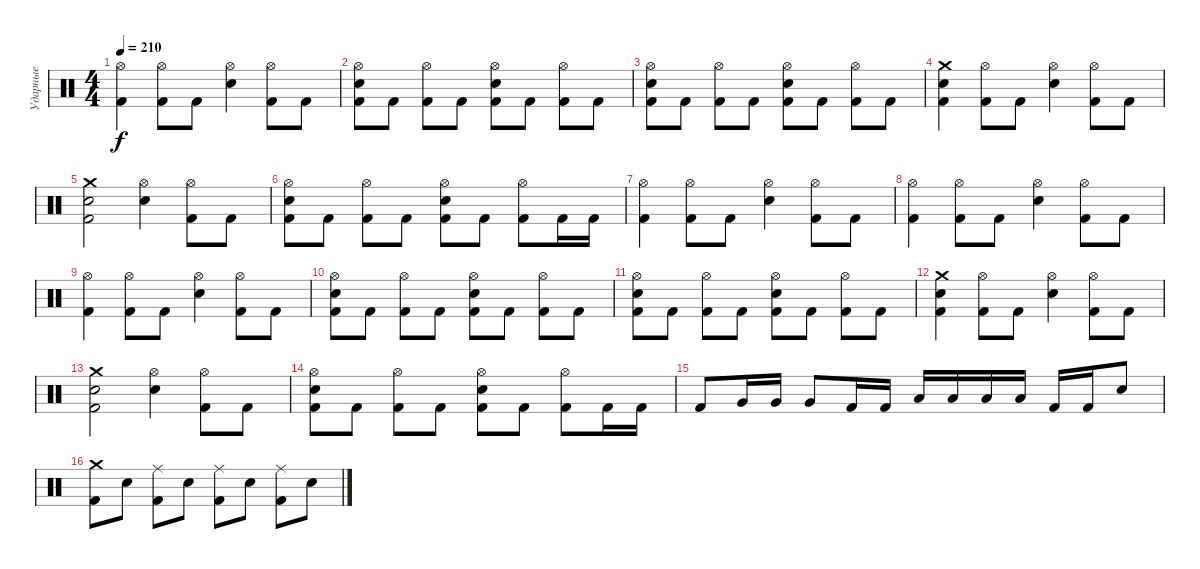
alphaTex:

\track ("Ударные" "Ударные") {instrument percussion}
\staff {score}
\articulation defaults
\ts (4 4)
\tempo 210
\clef neutral
\ks c
("Hi-Hat (open)" "Kick (hit) 2").4{dy f} ("Hi-Hat (open)" "Kick (hit) 2").8 "Kick (hit) 2".8 ("Hi-Hat (open)" "Snare (hit) 2").4 ("Hi-Hat (open)" "Kick (hit) 2").8 "Kick (hit) 2".8 |
("Hi-Hat (open)" "Snare (hit) 2" "Kick (hit) 2").8 "Kick (hit) 2".8 ("Hi-Hat (open)" "Kick (hit) 2").8 "Kick (hit) 2".8 ("Hi-Hat (open)" "Snare (hit) 2" "Kick (hit) 2").8 "Kick (hit) 2".8 ("Hi-Hat (open)" "Kick (hit) 2").8 "Kick (hit) 2".8 |
("Hi-Hat (open)" "Snare (hit) 2" "Kick (hit) 2").8 "Kick (hit) 2".8 ("Hi-Hat (open)" "Kick (hit) 2").8 "Kick (hit) 2".8 ("Hi-Hat (open)" "Snare (hit) 2" "Kick (hit) 2").8 "Kick (hit) 2".8 ("Hi-Hat (open)" "Kick (hit) 2").8 "Kick (hit) 2".8 |
("Crash medium (hit)" "Snare (hit) 2" "Kick (hit) 2").4 ("Hi-Hat (open)" "Kick (hit) 2").8 "Kick (hit) 2".8 ("Hi-Hat (open)" "Snare (hit) 2").4 ("Hi-Hat (open)" "Kick (hit) 2").8 "Kick (hit) 2".8 |
("Crash medium (hit)" "Snare (hit) 2" "Kick (hit) 2").2 ("Hi-Hat (open)" "Snare (hit) 2").4 ("Hi-Hat (open)" "Kick (hit) 2").8 "Kick (hit) 2".8 |
("Hi-Hat (open)" "Snare (hit) 2" "Kick (hit) 2").8 "Kick (hit) 2".8 ("Hi-Hat (open)" "Kick (hit) 2").8 "Kick (hit) 2".8 ("Hi-Hat (open)" "Snare (hit) 2" "Kick (hit) 2").8 "Kick (hit) 2".8 ("Hi-Hat (open)" "Kick (hit) 2").8 "Kick (hit) 2".16 "Kick (hit) 2".16 |
("Hi-Hat (open)" "Kick (hit) 2").4 ("Hi-Hat (open)" "Kick (hit) 2").8 "Kick (hit) 2".8 ("Hi-Hat (open)" "Snare (hit) 2").4 ("Hi-Hat (open)" "Kick (hit) 2").8 "Kick (hit) 2".8 |
("Hi-Hat (open)" "Kick (hit) 2").4 ("Hi-Hat (open)" "Kick (hit) 2").8 "Kick (hit) 2".8 ("Hi-Hat (open)" "Snare (hit) 2").4 ("Hi-Hat (open)" "Kick (hit) 2").8 "Kick (hit) 2".8 |
("Hi-Hat (open)" "Kick (hit) 2").4 ("Hi-Hat (open)" "Kick (hit) 2").8 "Kick (hit) 2".8 ("Hi-Hat (open)" "Snare (hit) 2").4 ("Hi-Hat (open)" "Kick (hit) 2").8 "Kick (hit) 2".8 |
("Hi-Hat (open)" "Snare (hit) 2" "Kick (hit) 2").8 "Kick (hit) 2".8 ("Hi-Hat (open)" "Kick (hit) 2").8 "Kick (hit) 2".8 ("Hi-Hat (open)" "Snare (hit) 2" "Kick (hit) 2").8 "Kick (hit) 2".8 ("Hi-Hat (open)" "Kick (hit) 2").8 "Kick (hit) 2".8 |
("Hi-Hat (open)" "Snare (hit) 2" "Kick (hit) 2").8 "Kick (hit) 2".8 ("Hi-Hat (open)" "Kick (hit) 2").8 "Kick (hit) 2".8 ("Hi-Hat (open)" "Snare (hit) 2" "Kick (hit) 2").8 "Kick (hit) 2".8 ("Hi-Hat (open)" "Kick (hit) 2").8 "Kick (hit) 2".8 |
("Crash medium (hit)" "Snare (hit) 2" "Kick (hit) 2").4 ("Hi-Hat (open)" "Kick (hit) 2").8 "Kick (hit) 2".8 ("Hi-Hat (open)" "Snare (hit) 2").4 ("Hi-Hat (open)" "Kick (hit) 2").8 "Kick (hit) 2".8 |
("Crash medium (hit)" "Snare (hit) 2" "Kick (hit) 2").2 ("Hi-Hat (open)" "Snare (hit) 2").4 ("Hi-Hat (open)" "Kick (hit) 2").8 "Kick (hit) 2".8 |
("Hi-Hat (open)" "Snare (hit) 2" "Kick (hit) 2").8 "Kick (hit) 2".8 ("Hi-Hat (open)" "Kick (hit) 2").8 "Kick (hit) 2".8 ("Hi-Hat (open)" "Snare (hit) 2" "Kick (hit) 2").8 "Kick (hit) 2".8 ("Hi-Hat (open)" "Kick (hit) 2").8 "Kick (hit) 2".16 "Kick (hit) 2".16 |
"Kick (hit) 2".8 "Very Low Tom (hit)".16 "Very Low Tom (hit)".16 "Very Low Tom (hit)".8 "Kick (hit) 2".16 "Kick (hit) 2".16 "Low Tom (hit)".16 "Low Tom (hit)".16 "Low Tom (hit)".16 "Low Tom (hit)".16 "Kick (hit) 2".16 "Kick (hit) 2".16 "Snare (hit) 2".8 |
("Crash medium (hit)" "Kick (hit) 2").8 "Snare (hit) 2".8 ("Ride (middle)" "Kick (hit) 2").8 "Snare (hit) 2".8 ("Ride (middle)" "Kick (hit) 2").8 "Snare (hit) 2".8 ("Ride (middle)" "Kick (hit) 2").8 "Snare (hit) 2".8
